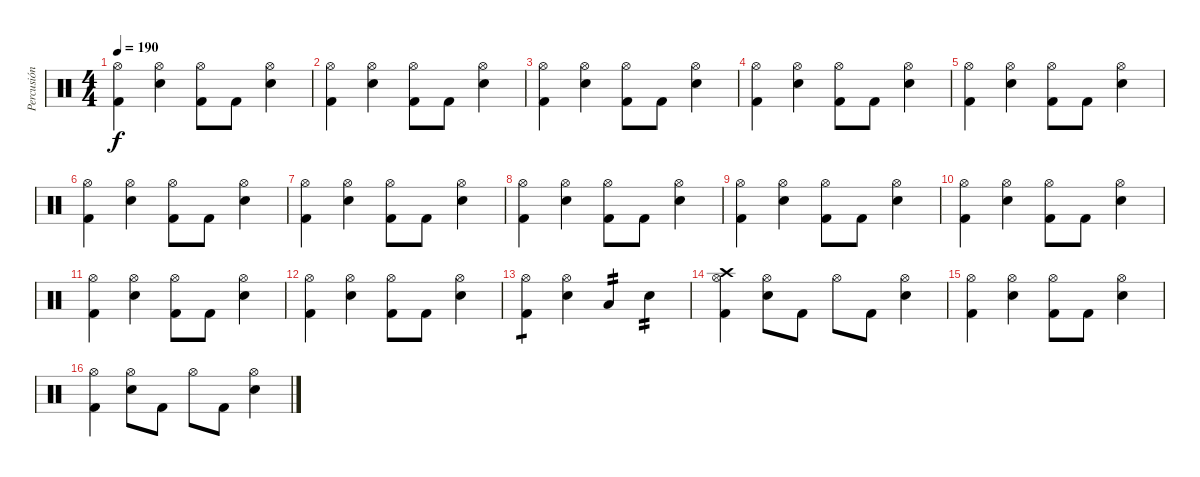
\track ("Percusión" "Percusión") {instrument percussion}
\staff {score}
\articulation defaults
\ts (4 4)
\tempo 190
\clef neutral
\ks c
("Hi-Hat (open)" "Kick (hit) 2").4{dy f} ("Hi-Hat (open)" "Electric Snare (hit)").4 ("Hi-Hat (open)" "Kick (hit) 2").8 "Kick (hit) 2".8 ("Hi-Hat (open)" "Electric Snare (hit)").4 |
("Hi-Hat (open)" "Kick (hit) 2").4 ("Hi-Hat (open)" "Electric Snare (hit)").4 ("Hi-Hat (open)" "Kick (hit) 2").8 "Kick (hit) 2".8 ("Hi-Hat (open)" "Electric Snare (hit)").4 |
("Hi-Hat (open)" "Kick (hit) 2").4 ("Hi-Hat (open)" "Electric Snare (hit)").4 ("Hi-Hat (open)" "Kick (hit) 2").8 "Kick (hit) 2".8 ("Hi-Hat (open)" "Electric Snare (hit)").4 |
("Hi-Hat (open)" "Kick (hit) 2").4 ("Hi-Hat (open)" "Electric Snare (hit)").4 ("Hi-Hat (open)" "Kick (hit) 2").8 "Kick (hit) 2".8 ("Hi-Hat (open)" "Electric Snare (hit)").4 |
("Hi-Hat (open)" "Kick (hit) 2").4 ("Hi-Hat (open)" "Electric Snare (hit)").4 ("Hi-Hat (open)" "Kick (hit) 2").8 "Kick (hit) 2".8 ("Hi-Hat (open)" "Electric Snare (hit)").4 |
("Hi-Hat (open)" "Kick (hit) 2").4 ("Hi-Hat (open)" "Electric Snare (hit)").4 ("Hi-Hat (open)" "Kick (hit) 2").8 "Kick (hit) 2".8 ("Hi-Hat (open)" "Electric Snare (hit)").4 |
("Hi-Hat (open)" "Kick (hit) 2").4 ("Hi-Hat (open)" "Electric Snare (hit)").4 ("Hi-Hat (open)" "Kick (hit) 2").8 "Kick (hit) 2".8 ("Hi-Hat (open)" "Electric Snare (hit)").4 |
("Hi-Hat (open)" "Kick (hit) 2").4 ("Hi-Hat (open)" "Electric Snare (hit)").4 ("Hi-Hat (open)" "Kick (hit) 2").8 "Kick (hit) 2".8 ("Hi-Hat (open)" "Electric Snare (hit)").4 |
("Hi-Hat (open)" "Kick (hit) 2").4 ("Hi-Hat (open)" "Electric Snare (hit)").4 ("Hi-Hat (open)" "Kick (hit) 2").8 "Kick (hit) 2".8 ("Hi-Hat (open)" "Electric Snare (hit)").4 |
("Hi-Hat (open)" "Kick (hit) 2").4 ("Hi-Hat (open)" "Electric Snare (hit)").4 ("Hi-Hat (open)" "Kick (hit) 2").8 "Kick (hit) 2".8 ("Hi-Hat (open)" "Electric Snare (hit)").4 |
("Hi-Hat (open)" "Kick (hit) 2").4 ("Hi-Hat (open)" "Electric Snare (hit)").4 ("Hi-Hat (open)" "Kick (hit) 2").8 "Kick (hit) 2".8 ("Hi-Hat (open)" "Electric Snare (hit)").4 |
("Hi-Hat (open)" "Kick (hit) 2").4 ("Hi-Hat (open)" "Electric Snare (hit)").4 ("Hi-Hat (open)" "Kick (hit) 2").8 "Kick (hit) 2".8 ("Hi-Hat (open)" "Electric Snare (hit)").4 |
("Hi-Hat (open)" "Kick (hit) 2").4{tp 1} ("Hi-Hat (open)" "Electric Snare (hit)").4 "Low Tom (hit)".4{tp 2} "Electric Snare (hit)".4{tp 2} |
("Crash high (hit)" "Hi-Hat (open)" "Kick (hit) 2").4 ("Hi-Hat (open)" "Electric Snare (hit)").8 "Kick (hit) 2".8 "Hi-Hat (open)".8 "Kick (hit) 2".8 ("Hi-Hat (open)" "Electric Snare (hit)").4 |
("Hi-Hat (open)" "Kick (hit) 2").4 ("Hi-Hat (open)" "Electric Snare (hit)").4 ("Hi-Hat (open)" "Kick (hit) 2").8 "Kick (hit) 2".8 ("Hi-Hat (open)" "Electric Snare (hit)").4 |
("Hi-Hat (open)" "Kick (hit) 2").4 ("Hi-Hat (open)" "Electric Snare (hit)").8 "Kick (hit) 2".8 "Hi-Hat (open)".8 "Kick (hit) 2".8 ("Hi-Hat (open)" "Electric Snare (hit)").4
